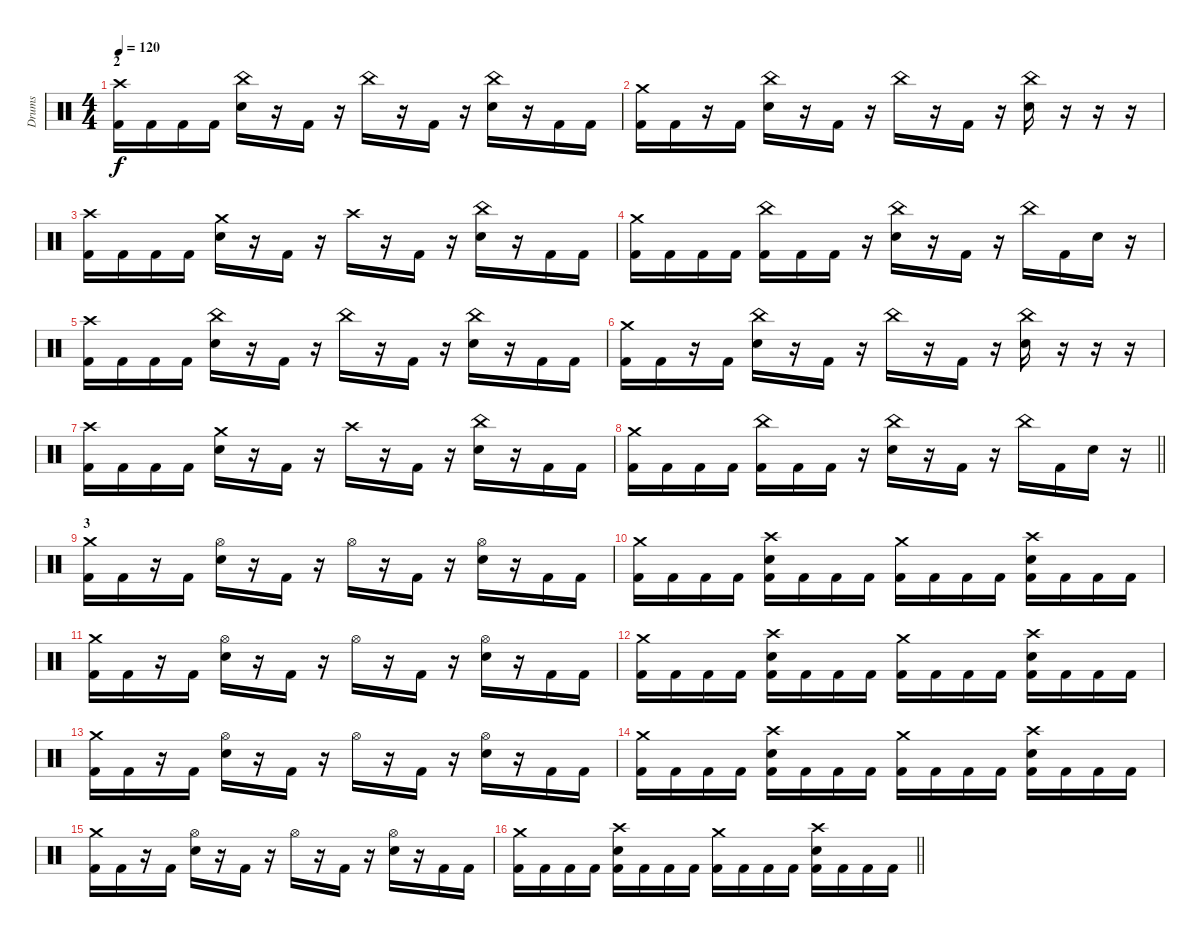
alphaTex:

\track ("Drums" "Drums") {instrument percussion}
\staff {score}
\articulation defaults
\ts (4 4)
\section ("" "2")
\tempo 120
\clef neutral
\ks aminor
("Crash high (hit)" "Kick (hit) 2").16{dy f} "Kick (hit) 2".16 "Kick (hit) 2".16 "Kick (hit) 2".16 ("China (hit)" "Electric Snare (hit)").16 r.16 "Kick (hit) 2".16 r.16 "China (hit)".16 r.16 "Kick (hit) 2".16 r.16 ("China (hit)" "Electric Snare (hit)").16 r.16 "Kick (hit) 2".16 "Kick (hit) 2".16 |
("Crash medium (hit)" "Kick (hit) 2").16 "Kick (hit) 2".16 r.16 "Kick (hit) 2".16 ("China (hit)" "Electric Snare (hit)").16 r.16 "Kick (hit) 2".16 r.16 "China (hit)".16 r.16 "Kick (hit) 2".16 r.16 ("China (hit)" "Electric Snare (hit)").16 r.16 r.16 r.16 |
("Crash high (hit)" "Kick (hit) 2").16 "Kick (hit) 2".16 "Kick (hit) 2".16 "Kick (hit) 2".16 ("Crash medium (hit)" "Electric Snare (hit)").16 r.16 "Kick (hit) 2".16 r.16 "Crash high (hit)".16 r.16 "Kick (hit) 2".16 r.16 ("China (hit)" "Electric Snare (hit)").16 r.16 "Kick (hit) 2".16 "Kick (hit) 2".16 |
("Crash medium (hit)" "Kick (hit) 2").16 "Kick (hit) 2".16 "Kick (hit) 2".16 "Kick (hit) 2".16 ("China (hit)" "Kick (hit) 2").16 "Kick (hit) 2".16 "Kick (hit) 2".16 r.16 ("China (hit)" "Electric Snare (hit)").16 r.16 "Kick (hit) 2".16 r.16 "China (hit)".16 "Kick (hit) 2".16 "Electric Snare (hit)".16 r.16 |
("Crash high (hit)" "Kick (hit) 2").16 "Kick (hit) 2".16 "Kick (hit) 2".16 "Kick (hit) 2".16 ("China (hit)" "Electric Snare (hit)").16 r.16 "Kick (hit) 2".16 r.16 "China (hit)".16 r.16 "Kick (hit) 2".16 r.16 ("China (hit)" "Electric Snare (hit)").16 r.16 "Kick (hit) 2".16 "Kick (hit) 2".16 |
("Crash medium (hit)" "Kick (hit) 2").16 "Kick (hit) 2".16 r.16 "Kick (hit) 2".16 ("China (hit)" "Electric Snare (hit)").16 r.16 "Kick (hit) 2".16 r.16 "China (hit)".16 r.16 "Kick (hit) 2".16 r.16 ("China (hit)" "Electric Snare (hit)").16 r.16 r.16 r.16 |
("Crash high (hit)" "Kick (hit) 2").16 "Kick (hit) 2".16 "Kick (hit) 2".16 "Kick (hit) 2".16 ("Crash medium (hit)" "Electric Snare (hit)").16 r.16 "Kick (hit) 2".16 r.16 "Crash high (hit)".16 r.16 "Kick (hit) 2".16 r.16 ("China (hit)" "Electric Snare (hit)").16 r.16 "Kick (hit) 2".16 "Kick (hit) 2".16 |
\barLineRight lightlight
("Crash medium (hit)" "Kick (hit) 2").16 "Kick (hit) 2".16 "Kick (hit) 2".16 "Kick (hit) 2".16 ("China (hit)" "Kick (hit) 2").16 "Kick (hit) 2".16 "Kick (hit) 2".16 r.16 ("China (hit)" "Electric Snare (hit)").16 r.16 "Kick (hit) 2".16 r.16 "China (hit)".16 "Kick (hit) 2".16 "Electric Snare (hit)".16 r.16 |
\section ("" "3")
("Crash medium (hit)" "Kick (hit) 2").16 "Kick (hit) 2".16 r.16 "Kick (hit) 2".16 ("Hi-Hat (open)" "Electric Snare (hit)").16 r.16 "Kick (hit) 2".16 r.16 "Hi-Hat (open)".16 r.16 "Kick (hit) 2".16 r.16 ("Hi-Hat (open)" "Electric Snare (hit)").16 r.16 "Kick (hit) 2".16 "Kick (hit) 2".16 |
("Crash medium (hit)" "Kick (hit) 2").16 "Kick (hit) 2".16 "Kick (hit) 2".16 "Kick (hit) 2".16 ("Crash high (hit)" "Electric Snare (hit)" "Kick (hit) 2").16 "Kick (hit) 2".16 "Kick (hit) 2".16 "Kick (hit) 2".16 ("Crash medium (hit)" "Kick (hit) 2").16 "Kick (hit) 2".16 "Kick (hit) 2".16 "Kick (hit) 2".16 ("Crash high (hit)" "Electric Snare (hit)" "Kick (hit) 2").16 "Kick (hit) 2".16 "Kick (hit) 2".16 "Kick (hit) 2".16 |
("Crash medium (hit)" "Kick (hit) 2").16 "Kick (hit) 2".16 r.16 "Kick (hit) 2".16 ("Hi-Hat (open)" "Electric Snare (hit)").16 r.16 "Kick (hit) 2".16 r.16 "Hi-Hat (open)".16 r.16 "Kick (hit) 2".16 r.16 ("Hi-Hat (open)" "Electric Snare (hit)").16 r.16 "Kick (hit) 2".16 "Kick (hit) 2".16 |
("Crash medium (hit)" "Kick (hit) 2").16 "Kick (hit) 2".16 "Kick (hit) 2".16 "Kick (hit) 2".16 ("Crash high (hit)" "Electric Snare (hit)" "Kick (hit) 2").16 "Kick (hit) 2".16 "Kick (hit) 2".16 "Kick (hit) 2".16 ("Crash medium (hit)" "Kick (hit) 2").16 "Kick (hit) 2".16 "Kick (hit) 2".16 "Kick (hit) 2".16 ("Crash high (hit)" "Electric Snare (hit)" "Kick (hit) 2").16 "Kick (hit) 2".16 "Kick (hit) 2".16 "Kick (hit) 2".16 |
("Crash medium (hit)" "Kick (hit) 2").16 "Kick (hit) 2".16 r.16 "Kick (hit) 2".16 ("Hi-Hat (open)" "Electric Snare (hit)").16 r.16 "Kick (hit) 2".16 r.16 "Hi-Hat (open)".16 r.16 "Kick (hit) 2".16 r.16 ("Hi-Hat (open)" "Electric Snare (hit)").16 r.16 "Kick (hit) 2".16 "Kick (hit) 2".16 |
("Crash medium (hit)" "Kick (hit) 2").16 "Kick (hit) 2".16 "Kick (hit) 2".16 "Kick (hit) 2".16 ("Crash high (hit)" "Electric Snare (hit)" "Kick (hit) 2").16 "Kick (hit) 2".16 "Kick (hit) 2".16 "Kick (hit) 2".16 ("Crash medium (hit)" "Kick (hit) 2").16 "Kick (hit) 2".16 "Kick (hit) 2".16 "Kick (hit) 2".16 ("Crash high (hit)" "Electric Snare (hit)" "Kick (hit) 2").16 "Kick (hit) 2".16 "Kick (hit) 2".16 "Kick (hit) 2".16 |
("Crash medium (hit)" "Kick (hit) 2").16 "Kick (hit) 2".16 r.16 "Kick (hit) 2".16 ("Hi-Hat (open)" "Electric Snare (hit)").16 r.16 "Kick (hit) 2".16 r.16 "Hi-Hat (open)".16 r.16 "Kick (hit) 2".16 r.16 ("Hi-Hat (open)" "Electric Snare (hit)").16 r.16 "Kick (hit) 2".16 "Kick (hit) 2".16 |
\barLineRight lightlight
("Crash medium (hit)" "Kick (hit) 2").16 "Kick (hit) 2".16 "Kick (hit) 2".16 "Kick (hit) 2".16 ("Crash high (hit)" "Electric Snare (hit)" "Kick (hit) 2").16 "Kick (hit) 2".16 "Kick (hit) 2".16 "Kick (hit) 2".16 ("Crash medium (hit)" "Kick (hit) 2").16 "Kick (hit) 2".16 "Kick (hit) 2".16 "Kick (hit) 2".16 ("Crash high (hit)" "Electric Snare (hit)" "Kick (hit) 2").16 "Kick (hit) 2".16 "Kick (hit) 2".16 "Kick (hit) 2".16
